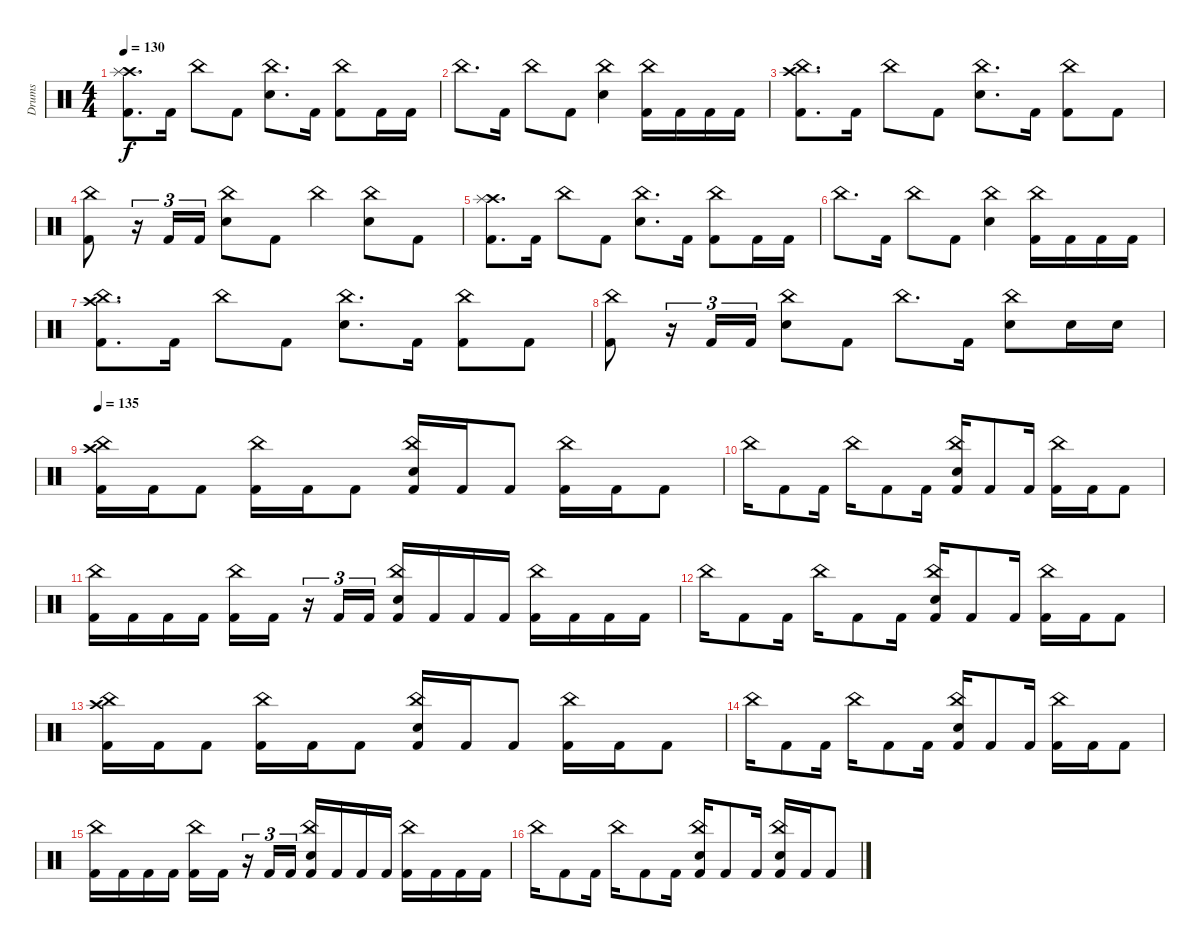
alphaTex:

\track ("Drums" "Drums") {instrument percussion}
\staff {score}
\articulation defaults
\ts (4 4)
\tempo 130
\clef neutral
\ks c
("Crash high (hit)" "Splash (hit)" "Kick (hit) 2").8{d dy f} "Kick (hit) 2".16 "China (hit)".8 "Kick (hit) 2".8 ("China (hit)" "Electric Snare (hit)").8{d} "Kick (hit) 2".16 ("China (hit)" "Kick (hit) 2").8 "Kick (hit) 2".16 "Kick (hit) 2".16 |
"China (hit)".8{d} "Kick (hit) 2".16 "China (hit)".8 "Kick (hit) 2".8 ("China (hit)" "Electric Snare (hit)").4 ("China (hit)" "Kick (hit) 2").16 "Kick (hit) 2".16 "Kick (hit) 2".16 "Kick (hit) 2".16 |
("China (hit)" "Crash high (hit)" "Kick (hit) 2").8{d} "Kick (hit) 2".16 "China (hit)".8 "Kick (hit) 2".8 ("China (hit)" "Electric Snare (hit)").8{d} "Kick (hit) 2".16 ("China (hit)" "Kick (hit) 2").8 "Kick (hit) 2".8 |
("China (hit)" "Kick (hit) 2").8 r.16{tu (3 2)} "Kick (hit) 2".16{tu (3 2)} "Kick (hit) 2".16{tu (3 2)} ("China (hit)" "Electric Snare (hit)").8 "Kick (hit) 2".8 "China (hit)".4 ("China (hit)" "Electric Snare (hit)").8 "Kick (hit) 2".8 |
("Crash high (hit)" "Splash (hit)" "Kick (hit) 2").8{d} "Kick (hit) 2".16 "China (hit)".8 "Kick (hit) 2".8 ("China (hit)" "Electric Snare (hit)").8{d} "Kick (hit) 2".16 ("China (hit)" "Kick (hit) 2").8 "Kick (hit) 2".16 "Kick (hit) 2".16 |
"China (hit)".8{d} "Kick (hit) 2".16 "China (hit)".8 "Kick (hit) 2".8 ("China (hit)" "Electric Snare (hit)").4 ("China (hit)" "Kick (hit) 2").16 "Kick (hit) 2".16 "Kick (hit) 2".16 "Kick (hit) 2".16 |
("China (hit)" "Crash high (hit)" "Kick (hit) 2").8{d} "Kick (hit) 2".16 "China (hit)".8 "Kick (hit) 2".8 ("China (hit)" "Electric Snare (hit)").8{d} "Kick (hit) 2".16 ("China (hit)" "Kick (hit) 2").8 "Kick (hit) 2".8 |
("China (hit)" "Kick (hit) 2").8 r.16{tu (3 2)} "Kick (hit) 2".16{tu (3 2)} "Kick (hit) 2".16{tu (3 2)} ("China (hit)" "Electric Snare (hit)").8 "Kick (hit) 2".8 "China (hit)".8{d} "Kick (hit) 2".16 ("China (hit)" "Electric Snare (hit)").8 "Electric Snare (hit)".16 "Electric Snare (hit)".16 |
\tempo 135
("China (hit)" "Crash high (hit)" "Kick (hit) 2").16 "Kick (hit) 2".16 "Kick (hit) 2".8 ("China (hit)" "Kick (hit) 2").16 "Kick (hit) 2".16 "Kick (hit) 2".8 ("China (hit)" "Electric Snare (hit)" "Kick (hit) 2").16 "Kick (hit) 2".16 "Kick (hit) 2".8 ("China (hit)" "Kick (hit) 2").16 "Kick (hit) 2".16 "Kick (hit) 2".8 |
"China (hit)".16 "Kick (hit) 2".8 "Kick (hit) 2".16 "China (hit)".16 "Kick (hit) 2".8 "Kick (hit) 2".16 ("China (hit)" "Electric Snare (hit)" "Kick (hit) 2").16 "Kick (hit) 2".8 "Kick (hit) 2".16 ("China (hit)" "Kick (hit) 2").16 "Kick (hit) 2".16 "Kick (hit) 2".8 |
("China (hit)" "Kick (hit) 2").16 "Kick (hit) 2".16 "Kick (hit) 2".16 "Kick (hit) 2".16 ("China (hit)" "Kick (hit) 2").16 "Kick (hit) 2".16 r.16{tu (3 2)} "Kick (hit) 2".16{tu (3 2)} "Kick (hit) 2".16{tu (3 2)} ("China (hit)" "Electric Snare (hit)" "Kick (hit) 2").16 "Kick (hit) 2".16 "Kick (hit) 2".16 "Kick (hit) 2".16 ("China (hit)" "Kick (hit) 2").16 "Kick (hit) 2".16 "Kick (hit) 2".16 "Kick (hit) 2".16 |
"China (hit)".16 "Kick (hit) 2".8 "Kick (hit) 2".16 "China (hit)".16 "Kick (hit) 2".8 "Kick (hit) 2".16 ("China (hit)" "Electric Snare (hit)" "Kick (hit) 2").16 "Kick (hit) 2".8 "Kick (hit) 2".16 ("China (hit)" "Kick (hit) 2").16 "Kick (hit) 2".16 "Kick (hit) 2".8 |
("China (hit)" "Crash high (hit)" "Kick (hit) 2").16 "Kick (hit) 2".16 "Kick (hit) 2".8 ("China (hit)" "Kick (hit) 2").16 "Kick (hit) 2".16 "Kick (hit) 2".8 ("China (hit)" "Electric Snare (hit)" "Kick (hit) 2").16 "Kick (hit) 2".16 "Kick (hit) 2".8 ("China (hit)" "Kick (hit) 2").16 "Kick (hit) 2".16 "Kick (hit) 2".8 |
"China (hit)".16 "Kick (hit) 2".8 "Kick (hit) 2".16 "China (hit)".16 "Kick (hit) 2".8 "Kick (hit) 2".16 ("China (hit)" "Electric Snare (hit)" "Kick (hit) 2").16 "Kick (hit) 2".8 "Kick (hit) 2".16 ("China (hit)" "Kick (hit) 2").16 "Kick (hit) 2".16 "Kick (hit) 2".8 |
("China (hit)" "Kick (hit) 2").16 "Kick (hit) 2".16 "Kick (hit) 2".16 "Kick (hit) 2".16 ("China (hit)" "Kick (hit) 2").16 "Kick (hit) 2".16 r.16{tu (3 2)} "Kick (hit) 2".16{tu (3 2)} "Kick (hit) 2".16{tu (3 2)} ("China (hit)" "Electric Snare (hit)" "Kick (hit) 2").16 "Kick (hit) 2".16 "Kick (hit) 2".16 "Kick (hit) 2".16 ("China (hit)" "Kick (hit) 2").16 "Kick (hit) 2".16 "Kick (hit) 2".16 "Kick (hit) 2".16 |
"China (hit)".16 "Kick (hit) 2".8 "Kick (hit) 2".16 "China (hit)".16 "Kick (hit) 2".8 "Kick (hit) 2".16 ("China (hit)" "Electric Snare (hit)" "Kick (hit) 2").16 "Kick (hit) 2".8 "Kick (hit) 2".16 ("China (hit)" "Electric Snare (hit)" "Kick (hit) 2").16 "Kick (hit) 2".16 "Kick (hit) 2".8
